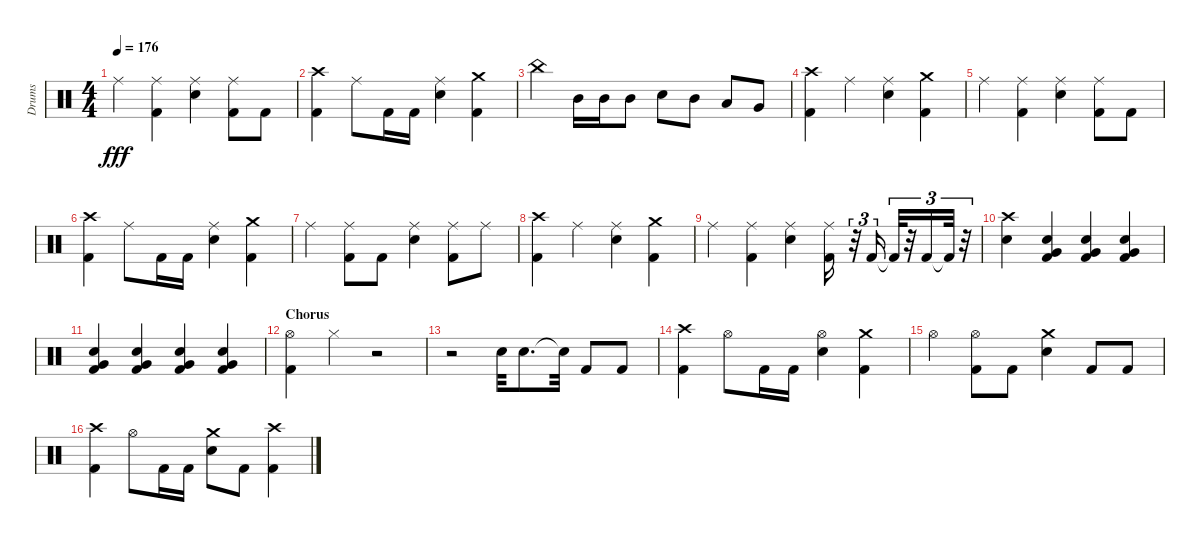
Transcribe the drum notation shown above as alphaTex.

\track ("Drums" "Drums") {instrument percussion}
\staff {score}
\articulation defaults
\ts (4 4)
\tempo 176
\clef neutral
\ks aminor "Ride (middle)".4{dy fff}
("Kick (hit) 2" "Ride (middle)").4 ("Snare (hit) 2" "Ride (middle)").4 ("Kick (hit) 2" "Ride (middle)").8 "Kick (hit) 2".8 |
("Kick (hit) 2" "Crash high (hit)").4 "Ride (middle)".8 "Kick (hit) 2".16 "Kick (hit) 2".16 ("Snare (hit) 2" "Ride (middle)").4 ("Kick (hit) 2" "Crash medium (hit)").4 |
"China (hit)".4 "Mid Tom (hit)".16 "Mid Tom (hit)".16 "Mid Tom (hit)".8 "Snare (hit) 2".8 "Mid Tom (hit)".8 "Low Tom (hit)".8 "Very Low Tom (hit)".8 |
("Kick (hit) 2" "Crash high (hit)").4 "Ride (middle)".4 ("Snare (hit) 2" "Ride (middle)").4 ("Kick (hit) 2" "Crash medium (hit)").4 |
"Ride (middle)".4 ("Kick (hit) 2" "Ride (middle)").4 ("Ride (middle)" "Snare (hit) 2").4 ("Ride (middle)" "Kick (hit) 2").8 "Kick (hit) 2".8 |
("Crash high (hit)" "Kick (hit) 2").4 "Ride (middle)".8 "Kick (hit) 2".16 "Kick (hit) 2".16 ("Ride (middle)" "Snare (hit) 2").4 ("Crash medium (hit)" "Kick (hit) 2").4 |
"Ride (middle)".4 ("Ride (middle)" "Kick (hit) 2").8 "Kick (hit) 2".8 ("Snare (hit) 2" "Ride (middle)").4 ("Kick (hit) 2" "Ride (middle)").8 "Ride (middle)".8 |
("Crash high (hit)" "Kick (hit) 2").4 "Ride (middle)".4 ("Snare (hit) 2" "Ride (middle)").4 ("Kick (hit) 2" "Crash medium (hit)").4 |
"Ride (middle)".4 ("Kick (hit) 2" "Ride (middle)").4 ("Ride (middle)" "Snare (hit) 2").4 ("Ride (middle)" "Kick (hit) 2").16 r.32{tu (3 2)} "Kick (hit) 2".16{tu (3 2)} "Kick (hit) 2"{t}.32{tu (3 2)} r.32{tu (3 2)} "Kick (hit) 2".16{tu (3 2)} "Kick (hit) 2"{t}.32{tu (3 2)} r.32{tu (3 2)} |
("Crash high (hit)" "Snare (hit) 2").4 ("Kick (hit) 2" "Very Low Tom (hit)" "Snare (hit) 2").4 ("Snare (hit) 2" "Kick (hit) 2" "Very Low Tom (hit)").4 ("Very Low Tom (hit)" "Kick (hit) 2" "Snare (hit) 2").4 |
("Very Low Tom (hit)" "Kick (hit) 2" "Snare (hit) 2").4 ("Snare (hit) 2" "Kick (hit) 2" "Very Low Tom (hit)").4 ("Very Low Tom (hit)" "Kick (hit) 2" "Snare (hit) 2").4 ("Very Low Tom (hit)" "Kick (hit) 2" "Snare (hit) 2").4 |
\section ("" "Chorus")
("Kick (hit) 2" "Hi-Hat (open)").4 "Hi-Hat (closed)".4 r.2 |
r.2 "Snare (hit) 2".32 "Snare (hit) 2".8{d} "Snare (hit) 2"{t}.32 "Kick (hit) 2".8 "Kick (hit) 2".8 |
("Kick (hit) 2" "Crash high (hit)").4 "Hi-Hat (open)".8 "Kick (hit) 2".16 "Kick (hit) 2".16 ("Hi-Hat (open)" "Snare (hit) 2").4 ("Kick (hit) 2" "Crash medium (hit)").4 |
"Hi-Hat (open)".4 ("Kick (hit) 2" "Hi-Hat (open)").8 "Kick (hit) 2".8 ("Crash medium (hit)" "Snare (hit) 2").4 "Kick (hit) 2".8 "Kick (hit) 2".8 |
("Crash high (hit)" "Kick (hit) 2").4 "Hi-Hat (open)".8 "Kick (hit) 2".16 "Kick (hit) 2".16 ("Snare (hit) 2" "Crash medium (hit)").8 "Kick (hit) 2".8 ("Kick (hit) 2" "Crash high (hit)").4
